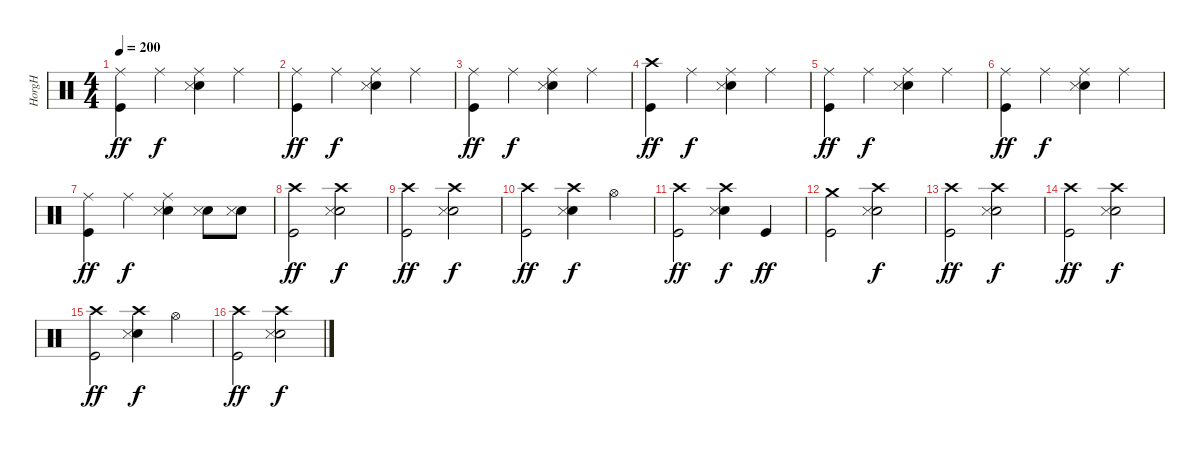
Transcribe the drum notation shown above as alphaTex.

\track ("HorgH" "HorgH") {instrument percussion}
\staff {score}
\articulation defaults
\ts (4 4)
\tempo 200
\clef neutral
\ks c
("Ride (middle)" "Kick (hit)").4{dy ff} "Ride (middle)".4{dy f} ("Ride (middle)" "Electric Snare (hit)" "Snare (side stick) 3").4 "Ride (middle)".4 |
("Ride (middle)" "Kick (hit)").4{dy ff} "Ride (middle)".4{dy f} ("Ride (middle)" "Electric Snare (hit)" "Snare (side stick) 3").4 "Ride (middle)".4 |
("Ride (middle)" "Kick (hit)").4{dy ff} "Ride (middle)".4{dy f} ("Ride (middle)" "Electric Snare (hit)" "Snare (side stick) 3").4 "Ride (middle)".4 |
("Crash high (hit)" "Kick (hit)").4{dy ff} "Ride (middle)".4{dy f} ("Ride (middle)" "Electric Snare (hit)" "Snare (side stick) 3").4 "Ride (middle)".4 |
("Ride (middle)" "Kick (hit)").4{dy ff} "Ride (middle)".4{dy f} ("Ride (middle)" "Electric Snare (hit)" "Snare (side stick) 3").4 "Ride (middle)".4 |
("Ride (middle)" "Kick (hit)").4{dy ff} "Ride (middle)".4{dy f} ("Ride (middle)" "Electric Snare (hit)" "Snare (side stick) 3").4 "Ride (middle)".4 |
("Ride (middle)" "Kick (hit)").4{dy ff} "Ride (middle)".4{dy f} ("Ride (middle)" "Electric Snare (hit)" "Snare (side stick) 3").4 ("Electric Snare (hit)" "Snare (side stick) 3").8 ("Electric Snare (hit)" "Snare (side stick) 3").8 |
\section ("" "")
("Crash high (hit)" "Kick (hit)").2{dy ff} ("Crash high (hit)" "Electric Snare (hit)" "Snare (side stick) 3").2{dy f} |
("Crash high (hit)" "Kick (hit)").2{dy ff} ("Crash high (hit)" "Electric Snare (hit)" "Snare (side stick) 3").2{dy f} |
("Crash high (hit)" "Kick (hit)").2{dy ff} ("Crash high (hit)" "Electric Snare (hit)" "Snare (side stick) 3").4{dy f} "Hi-Hat (open)".4 |
("Crash high (hit)" "Kick (hit)").2{dy ff} ("Crash high (hit)" "Electric Snare (hit)" "Snare (side stick) 3").4{dy f} "Kick (hit)".4{dy ff} |
("Crash medium (hit)" "Kick (hit)").2 ("Crash high (hit)" "Electric Snare (hit)" "Snare (side stick) 3").2{dy f} |
("Crash high (hit)" "Kick (hit)").2{dy ff} ("Crash high (hit)" "Electric Snare (hit)" "Snare (side stick) 3").2{dy f} |
("Crash high (hit)" "Kick (hit)").2{dy ff} ("Crash high (hit)" "Electric Snare (hit)" "Snare (side stick) 3").2{dy f} |
("Crash high (hit)" "Kick (hit)").2{dy ff} ("Crash high (hit)" "Electric Snare (hit)" "Snare (side stick) 3").4{dy f} "Hi-Hat (open)".4 |
("Crash high (hit)" "Kick (hit)").2{dy ff} ("Crash high (hit)" "Electric Snare (hit)" "Snare (side stick) 3").2{dy f}
